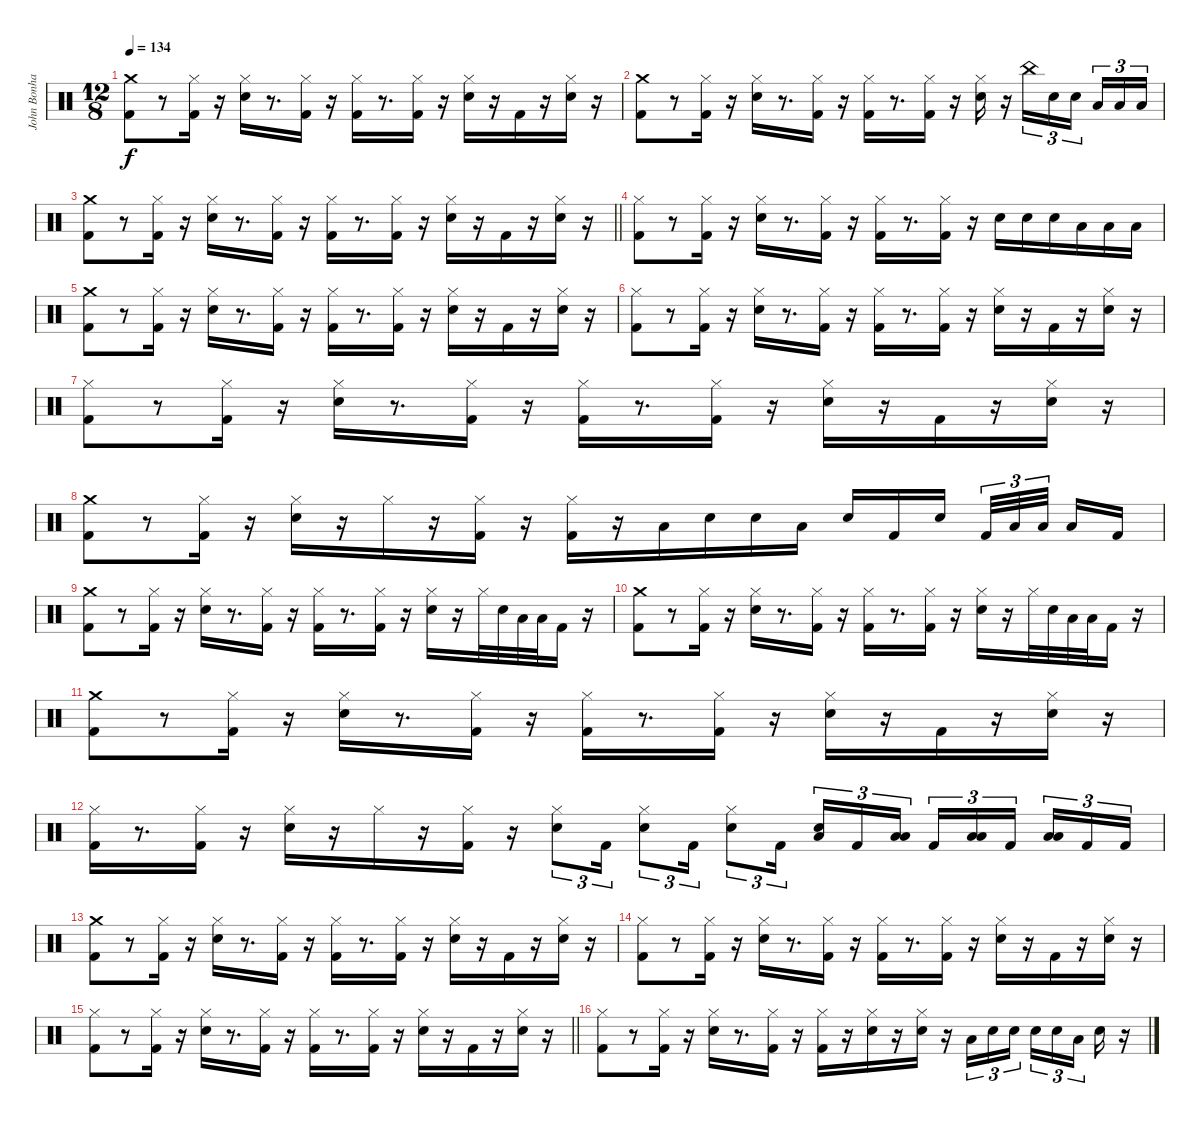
\track ("John Bonham - Drums" "John Bonha") {instrument percussion}
\staff {score}
\articulation defaults
\ts (12 8)
\tempo 134
\clef neutral
\ks c
("Kick (hit) 2" "Crash medium (hit)").8{dy f} r.8 ("Kick (hit) 2" "Hi-Hat (closed)").16 r.16 ("Hi-Hat (closed)" "Electric Snare (hit)").16 r.8{d} ("Hi-Hat (closed)" "Kick (hit) 2").16 r.16 ("Hi-Hat (closed)" "Kick (hit) 2").16 r.8{d} ("Hi-Hat (closed)" "Kick (hit) 2").16 r.16 ("Hi-Hat (closed)" "Electric Snare (hit)").16 r.16 "Kick (hit) 2".16 r.16 ("Hi-Hat (closed)" "Electric Snare (hit)").16 r.16 |
("Kick (hit) 2" "Crash medium (hit)").8 r.8 ("Kick (hit) 2" "Hi-Hat (closed)").16 r.16 ("Hi-Hat (closed)" "Electric Snare (hit)").16 r.8{d} ("Hi-Hat (closed)" "Kick (hit) 2").16 r.16 ("Hi-Hat (closed)" "Kick (hit) 2").16 r.8{d} ("Hi-Hat (closed)" "Kick (hit) 2").16 r.16 ("Hi-Hat (closed)" "Electric Snare (hit)").16 r.16 "China (hit)".16{tu (3 2)} "Electric Snare (hit)".16{tu (3 2)} "Electric Snare (hit)".16{tu (3 2) beam splitsecondary} "Low Tom (hit)".16{tu (3 2)} "Low Tom (hit)".16{tu (3 2)} "Low Floor Tom (hit)".16{tu (3 2)} |
\barLineRight lightlight
("Kick (hit) 2" "Crash medium (hit)").8 r.8 ("Kick (hit) 2" "Hi-Hat (closed)").16 r.16 ("Hi-Hat (closed)" "Electric Snare (hit)").16 r.8{d} ("Hi-Hat (closed)" "Kick (hit) 2").16 r.16 ("Hi-Hat (closed)" "Kick (hit) 2").16 r.8{d} ("Hi-Hat (closed)" "Kick (hit) 2").16 r.16 ("Hi-Hat (closed)" "Electric Snare (hit)").16 r.16 "Kick (hit) 2".16 r.16 ("Hi-Hat (closed)" "Electric Snare (hit)").16 r.16 |
("Kick (hit) 2" "Hi-Hat (closed)").8 r.8 ("Kick (hit) 2" "Hi-Hat (closed)").16 r.16 ("Hi-Hat (closed)" "Electric Snare (hit)").16 r.8{d} ("Hi-Hat (closed)" "Kick (hit) 2").16 r.16 ("Hi-Hat (closed)" "Kick (hit) 2").16 r.8{d} ("Hi-Hat (closed)" "Kick (hit) 2").16 r.16 "Electric Snare (hit)".16 "Electric Snare (hit)".16 "Electric Snare (hit)".16 "Low Tom (hit)".16 "Low Floor Tom (hit)".16 "Low Floor Tom (hit)".16 |
("Kick (hit) 2" "Crash medium (hit)").8 r.8 ("Kick (hit) 2" "Hi-Hat (closed)").16 r.16 ("Hi-Hat (closed)" "Electric Snare (hit)").16 r.8{d} ("Hi-Hat (closed)" "Kick (hit) 2").16 r.16 ("Hi-Hat (closed)" "Kick (hit) 2").16 r.8{d} ("Hi-Hat (closed)" "Kick (hit) 2").16 r.16 ("Hi-Hat (closed)" "Electric Snare (hit)").16 r.16 "Kick (hit) 2".16 r.16 ("Hi-Hat (closed)" "Electric Snare (hit)").16 r.16 |
("Kick (hit) 2" "Hi-Hat (closed)").8 r.8 ("Kick (hit) 2" "Hi-Hat (closed)").16 r.16 ("Hi-Hat (closed)" "Electric Snare (hit)").16 r.8{d} ("Hi-Hat (closed)" "Kick (hit) 2").16 r.16 ("Hi-Hat (closed)" "Kick (hit) 2").16 r.8{d} ("Hi-Hat (closed)" "Kick (hit) 2").16 r.16 ("Hi-Hat (closed)" "Electric Snare (hit)").16 r.16 "Kick (hit) 2".16 r.16 ("Hi-Hat (closed)" "Electric Snare (hit)").16 r.16 |
("Kick (hit) 2" "Hi-Hat (closed)").8 r.8 ("Kick (hit) 2" "Hi-Hat (closed)").16 r.16 ("Hi-Hat (closed)" "Electric Snare (hit)").16 r.8{d} ("Hi-Hat (closed)" "Kick (hit) 2").16 r.16 ("Hi-Hat (closed)" "Kick (hit) 2").16 r.8{d} ("Hi-Hat (closed)" "Kick (hit) 2").16 r.16 ("Hi-Hat (closed)" "Electric Snare (hit)").16 r.16 "Kick (hit) 2".16 r.16 ("Hi-Hat (closed)" "Electric Snare (hit)").16 r.16 |
("Crash medium (hit)" "Kick (hit) 2").8 r.8 ("Hi-Hat (closed)" "Kick (hit) 2").16 r.16 ("Hi-Hat (closed)" "Electric Snare (hit)").16 r.16 "Hi-Hat (closed)".16 r.16 ("Hi-Hat (closed)" "Kick (hit) 2").16 r.16 ("Hi-Hat (closed)" "Kick (hit) 2").16 r.16 "Low Tom (hit)".16 "Electric Snare (hit)".16 "Electric Snare (hit)".16 "Low Tom (hit)".16 "Electric Snare (hit)".16 "Kick (hit) 2".16 "Electric Snare (hit)".16{beam splitsecondary} "Kick (hit) 2".32{tu (3 2)} "Low Tom (hit)".32{tu (3 2)} "Low Floor Tom (hit)".32{tu (3 2) beam splitsecondary} "Low Tom (hit)".16 "Kick (hit) 2".16 |
("Kick (hit) 2" "Crash medium (hit)").8 r.8 ("Kick (hit) 2" "Hi-Hat (closed)").16 r.16 ("Hi-Hat (closed)" "Electric Snare (hit)").16 r.8{d} ("Hi-Hat (closed)" "Kick (hit) 2").16 r.16 ("Hi-Hat (closed)" "Kick (hit) 2").16 r.8{d} ("Hi-Hat (closed)" "Kick (hit) 2").16 r.16 ("Hi-Hat (closed)" "Electric Snare (hit)").16 r.16 "Hi-Hat (closed)".32 "Electric Snare (hit)".32 "Low Tom (hit)".32 "Low Floor Tom (hit)".32 "Kick (hit) 2".16 r.16 |
("Kick (hit) 2" "Crash medium (hit)").8 r.8 ("Kick (hit) 2" "Hi-Hat (closed)").16 r.16 ("Hi-Hat (closed)" "Electric Snare (hit)").16 r.8{d} ("Hi-Hat (closed)" "Kick (hit) 2").16 r.16 ("Hi-Hat (closed)" "Kick (hit) 2").16 r.8{d} ("Hi-Hat (closed)" "Kick (hit) 2").16 r.16 ("Hi-Hat (closed)" "Electric Snare (hit)").16 r.16 "Hi-Hat (closed)".32 "Electric Snare (hit)".32 "Low Tom (hit)".32 "Low Floor Tom (hit)".32 "Kick (hit) 2".16 r.16 |
("Kick (hit) 2" "Crash medium (hit)").8 r.8 ("Kick (hit) 2" "Hi-Hat (closed)").16 r.16 ("Hi-Hat (closed)" "Electric Snare (hit)").16 r.8{d} ("Hi-Hat (closed)" "Kick (hit) 2").16 r.16 ("Hi-Hat (closed)" "Kick (hit) 2").16 r.8{d} ("Hi-Hat (closed)" "Kick (hit) 2").16 r.16 ("Hi-Hat (closed)" "Electric Snare (hit)").16 r.16 "Kick (hit) 2".16 r.16 ("Hi-Hat (closed)" "Electric Snare (hit)").16 r.16 |
("Hi-Hat (closed)" "Kick (hit) 2").16 r.8{d} ("Hi-Hat (closed)" "Kick (hit) 2").16 r.16 ("Hi-Hat (closed)" "Electric Snare (hit)").16 r.16 "Hi-Hat (closed)".16 r.16 ("Hi-Hat (closed)" "Kick (hit) 2").16 r.16 ("Hi-Hat (closed)" "Electric Snare (hit)").8{tu (3 2)} "Kick (hit) 2".16{tu (3 2)} ("Hi-Hat (closed)" "Electric Snare (hit)").8{tu (3 2)} "Kick (hit) 2".16{tu (3 2)} ("Hi-Hat (closed)" "Electric Snare (hit)").8{tu (3 2)} "Kick (hit) 2".16{tu (3 2)} ("Electric Snare (hit)" "Low Tom (hit)").16{tu (3 2)} "Kick (hit) 2".16{tu (3 2)} ("Low Floor Tom (hit)" "Low Tom (hit)").16{tu (3 2) beam splitsecondary} "Kick (hit) 2".16{tu (3 2)} ("Low Tom (hit)" "Low Floor Tom (hit)").16{tu (3 2)} "Kick (hit) 2".16{tu (3 2) beam splitsecondary} ("Low Tom (hit)" "Low Floor Tom (hit)").16{tu (3 2)} "Kick (hit) 2".16{tu (3 2)} "Kick (hit) 2".16{tu (3 2)} |
("Kick (hit) 2" "Crash medium (hit)").8 r.8 ("Kick (hit) 2" "Hi-Hat (closed)").16 r.16 ("Hi-Hat (closed)" "Electric Snare (hit)").16 r.8{d} ("Hi-Hat (closed)" "Kick (hit) 2").16 r.16 ("Hi-Hat (closed)" "Kick (hit) 2").16 r.8{d} ("Hi-Hat (closed)" "Kick (hit) 2").16 r.16 ("Hi-Hat (closed)" "Electric Snare (hit)").16 r.16 "Kick (hit) 2".16 r.16 ("Hi-Hat (closed)" "Electric Snare (hit)").16 r.16 |
("Kick (hit) 2" "Hi-Hat (closed)").8 r.8 ("Kick (hit) 2" "Hi-Hat (closed)").16 r.16 ("Hi-Hat (closed)" "Electric Snare (hit)").16 r.8{d} ("Hi-Hat (closed)" "Kick (hit) 2").16 r.16 ("Hi-Hat (closed)" "Kick (hit) 2").16 r.8{d} ("Hi-Hat (closed)" "Kick (hit) 2").16 r.16 ("Hi-Hat (closed)" "Electric Snare (hit)").16 r.16 "Kick (hit) 2".16 r.16 ("Hi-Hat (closed)" "Electric Snare (hit)").16 r.16 |
\barLineRight lightlight
("Kick (hit) 2" "Hi-Hat (closed)").8 r.8 ("Kick (hit) 2" "Hi-Hat (closed)").16 r.16 ("Hi-Hat (closed)" "Electric Snare (hit)").16 r.8{d} ("Hi-Hat (closed)" "Kick (hit) 2").16 r.16 ("Hi-Hat (closed)" "Kick (hit) 2").16 r.8{d} ("Hi-Hat (closed)" "Kick (hit) 2").16 r.16 ("Hi-Hat (closed)" "Electric Snare (hit)").16 r.16 "Kick (hit) 2".16 r.16 ("Hi-Hat (closed)" "Electric Snare (hit)").16 r.16 |
("Kick (hit) 2" "Hi-Hat (closed)").8 r.8 ("Kick (hit) 2" "Hi-Hat (closed)").16 r.16 ("Hi-Hat (closed)" "Electric Snare (hit)").16 r.8{d} ("Hi-Hat (closed)" "Kick (hit) 2").16 r.16 ("Hi-Hat (closed)" "Kick (hit) 2").16 r.16 ("Hi-Hat (closed)" "Electric Snare (hit)").16 r.16 ("Hi-Hat (closed)" "Electric Snare (hit)").16 r.16 "Low Tom (hit)".16{tu (3 2)} "Electric Snare (hit)".16{tu (3 2)} "Electric Snare (hit)".16{tu (3 2) beam splitsecondary} "Electric Snare (hit)".16{tu (3 2)} "Electric Snare (hit)".16{tu (3 2)} "Low Tom (hit)".16{tu (3 2) beam splitsecondary} "Electric Snare (hit)".16 r.16
